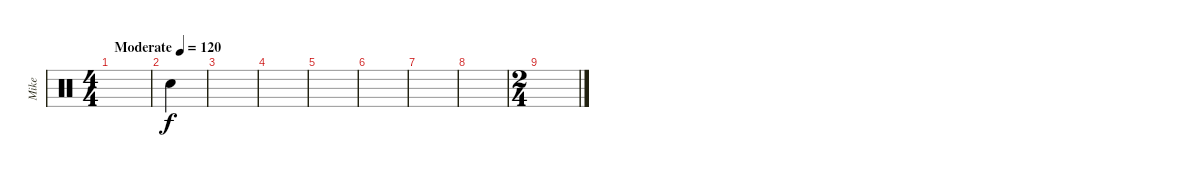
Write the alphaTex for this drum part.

\track ("Mike" "Mike") {instrument percussion}
\staff {score}
\articulation defaults
\ts (4 4)
\tempo (120 "Moderate")
\clef neutral
\ks c
|
"Snare (hit) 2".4 |
|
|
|
|
|
|
\ts (2 4)
